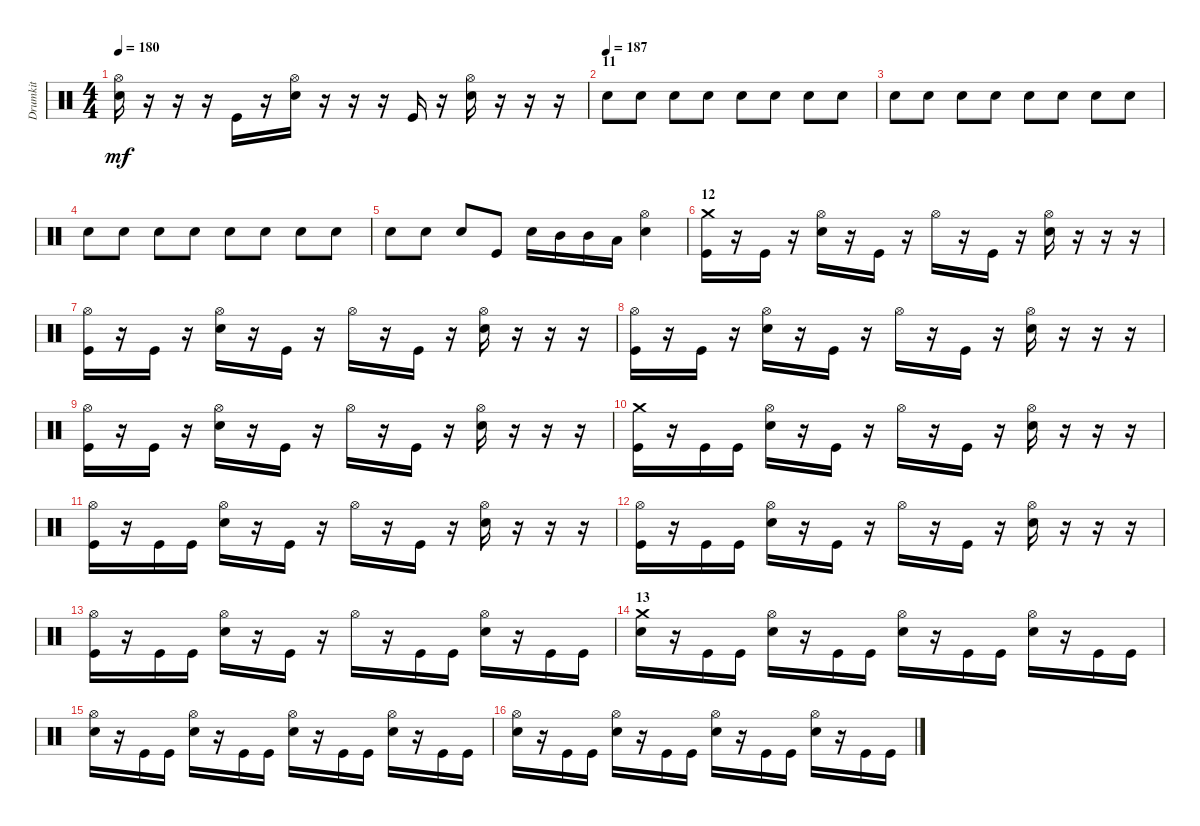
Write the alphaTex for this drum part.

\track ("Drumkit" "Drumkit") {instrument percussion}
\staff {score}
\articulation defaults
\ts (4 4)
\tempo 180
\clef neutral
\ks c
("Hi-Hat (open)" "Snare (hit) 2").16{dy mf} r.16 r.16 r.16 "Kick (hit)".16 r.16 ("Snare (hit) 2" "Hi-Hat (open)").16 r.16 r.16 r.16 "Kick (hit)".16 r.16 ("Snare (hit) 2" "Hi-Hat (open)").16 r.16 r.16 r.16 |
\section ("" "11")
\tempo (187)
"Snare (hit) 2".8 "Snare (hit) 2".8 "Snare (hit) 2".8 "Snare (hit) 2".8 "Snare (hit) 2".8 "Snare (hit) 2".8 "Snare (hit) 2".8 "Snare (hit) 2".8 |
"Snare (hit) 2".8 "Snare (hit) 2".8 "Snare (hit) 2".8 "Snare (hit) 2".8 "Snare (hit) 2".8 "Snare (hit) 2".8 "Snare (hit) 2".8 "Snare (hit) 2".8 |
"Snare (hit) 2".8 "Snare (hit) 2".8 "Snare (hit) 2".8 "Snare (hit) 2".8 "Snare (hit) 2".8 "Snare (hit) 2".8 "Snare (hit) 2".8 "Snare (hit) 2".8 |
"Snare (hit) 2".8 "Snare (hit) 2".8 "Snare (hit) 2".8 "Kick (hit)".8 "Snare (hit) 2".16 "Mid Tom (hit)".16 "Mid Tom (hit)".16 "Low Tom (hit)".16 ("Snare (hit) 2" "Hi-Hat (open)").4 |
\section ("" "12")
("Kick (hit)" "Crash medium (hit)").16 r.16 "Kick (hit)".16 r.16 ("Snare (hit) 2" "Hi-Hat (open)").16 r.16 "Kick (hit)".16 r.16 "Hi-Hat (open)".16 r.16 "Kick (hit)".16 r.16 ("Snare (hit) 2" "Hi-Hat (open)").16 r.16 r.16 r.16 |
("Kick (hit)" "Hi-Hat (open)").16 r.16 "Kick (hit)".16 r.16 ("Snare (hit) 2" "Hi-Hat (open)").16 r.16 "Kick (hit)".16 r.16 "Hi-Hat (open)".16 r.16 "Kick (hit)".16 r.16 ("Snare (hit) 2" "Hi-Hat (open)").16 r.16 r.16 r.16 |
("Kick (hit)" "Hi-Hat (open)").16 r.16 "Kick (hit)".16 r.16 ("Snare (hit) 2" "Hi-Hat (open)").16 r.16 "Kick (hit)".16 r.16 "Hi-Hat (open)".16 r.16 "Kick (hit)".16 r.16 ("Snare (hit) 2" "Hi-Hat (open)").16 r.16 r.16 r.16 |
("Kick (hit)" "Hi-Hat (open)").16 r.16 "Kick (hit)".16 r.16 ("Snare (hit) 2" "Hi-Hat (open)").16 r.16 "Kick (hit)".16 r.16 "Hi-Hat (open)".16 r.16 "Kick (hit)".16 r.16 ("Snare (hit) 2" "Hi-Hat (open)").16 r.16 r.16 r.16 |
("Kick (hit)" "Crash medium (hit)").16 r.16 "Kick (hit)".16 "Kick (hit)".16 ("Snare (hit) 2" "Hi-Hat (open)").16 r.16 "Kick (hit)".16 r.16 "Hi-Hat (open)".16 r.16 "Kick (hit)".16 r.16 ("Snare (hit) 2" "Hi-Hat (open)").16 r.16 r.16 r.16 |
("Kick (hit)" "Hi-Hat (open)").16 r.16 "Kick (hit)".16 "Kick (hit)".16 ("Snare (hit) 2" "Hi-Hat (open)").16 r.16 "Kick (hit)".16 r.16 "Hi-Hat (open)".16 r.16 "Kick (hit)".16 r.16 ("Snare (hit) 2" "Hi-Hat (open)").16 r.16 r.16 r.16 |
("Kick (hit)" "Hi-Hat (open)").16 r.16 "Kick (hit)".16 "Kick (hit)".16 ("Snare (hit) 2" "Hi-Hat (open)").16 r.16 "Kick (hit)".16 r.16 "Hi-Hat (open)".16 r.16 "Kick (hit)".16 r.16 ("Snare (hit) 2" "Hi-Hat (open)").16 r.16 r.16 r.16 |
("Kick (hit)" "Hi-Hat (open)").16 r.16 "Kick (hit)".16 "Kick (hit)".16 ("Snare (hit) 2" "Hi-Hat (open)").16 r.16 "Kick (hit)".16 r.16 "Hi-Hat (open)".16 r.16 "Kick (hit)".16 "Kick (hit)".16 ("Snare (hit) 2" "Hi-Hat (open)").16 r.16 "Kick (hit)".16 "Kick (hit)".16 |
\section ("" "13")
("Snare (hit) 2" "Crash medium (hit)").16 r.16 "Kick (hit)".16 "Kick (hit)".16 ("Snare (hit) 2" "Hi-Hat (open)").16 r.16 "Kick (hit)".16 "Kick (hit)".16 ("Snare (hit) 2" "Hi-Hat (open)").16 r.16 "Kick (hit)".16 "Kick (hit)".16 ("Snare (hit) 2" "Hi-Hat (open)").16 r.16 "Kick (hit)".16 "Kick (hit)".16 |
("Snare (hit) 2" "Hi-Hat (open)").16 r.16 "Kick (hit)".16 "Kick (hit)".16 ("Snare (hit) 2" "Hi-Hat (open)").16 r.16 "Kick (hit)".16 "Kick (hit)".16 ("Snare (hit) 2" "Hi-Hat (open)").16 r.16 "Kick (hit)".16 "Kick (hit)".16 ("Snare (hit) 2" "Hi-Hat (open)").16 r.16 "Kick (hit)".16 "Kick (hit)".16 |
("Snare (hit) 2" "Hi-Hat (open)").16 r.16 "Kick (hit)".16 "Kick (hit)".16 ("Snare (hit) 2" "Hi-Hat (open)").16 r.16 "Kick (hit)".16 "Kick (hit)".16 ("Snare (hit) 2" "Hi-Hat (open)").16 r.16 "Kick (hit)".16 "Kick (hit)".16 ("Snare (hit) 2" "Hi-Hat (open)").16 r.16 "Kick (hit)".16 "Kick (hit)".16
